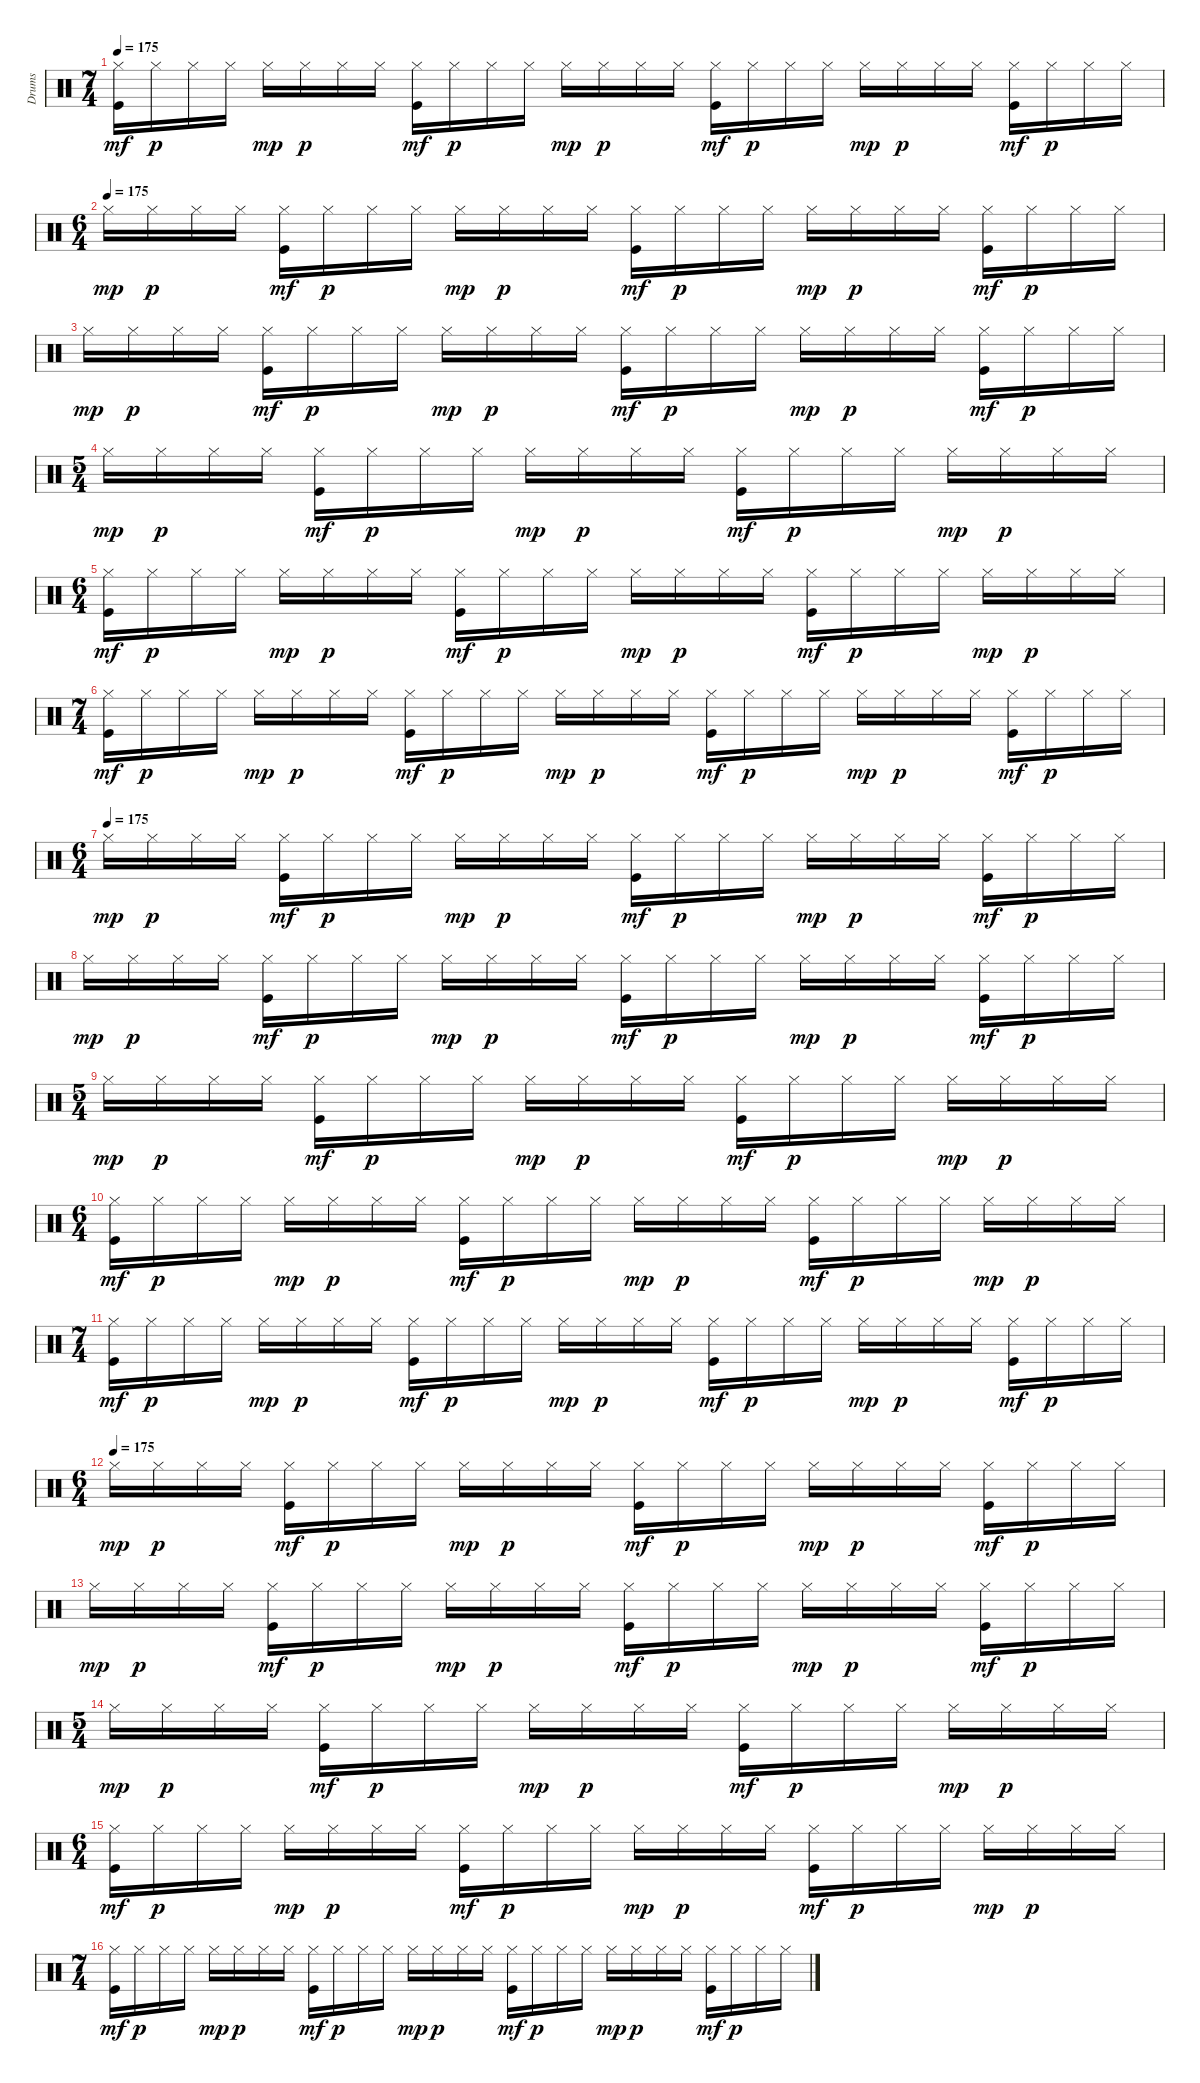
\track ("Drums" "Drums") {instrument percussion}
\staff {score}
\articulation defaults
\ts (7 4)
\tempo 175
\clef neutral
\ks c
("Hi-Hat (closed)" "Kick (hit)").16{dy mf} "Hi-Hat (closed)".16{dy p} "Hi-Hat (closed)".16 "Hi-Hat (closed)".16 "Hi-Hat (closed)".16{dy mp} "Hi-Hat (closed)".16{dy p} "Hi-Hat (closed)".16 "Hi-Hat (closed)".16 ("Hi-Hat (closed)" "Kick (hit)").16{dy mf} "Hi-Hat (closed)".16{dy p} "Hi-Hat (closed)".16 "Hi-Hat (closed)".16 "Hi-Hat (closed)".16{dy mp} "Hi-Hat (closed)".16{dy p} "Hi-Hat (closed)".16 "Hi-Hat (closed)".16 ("Hi-Hat (closed)" "Kick (hit)").16{dy mf} "Hi-Hat (closed)".16{dy p} "Hi-Hat (closed)".16 "Hi-Hat (closed)".16 "Hi-Hat (closed)".16{dy mp} "Hi-Hat (closed)".16{dy p} "Hi-Hat (closed)".16 "Hi-Hat (closed)".16 ("Hi-Hat (closed)" "Kick (hit)").16{dy mf} "Hi-Hat (closed)".16{dy p} "Hi-Hat (closed)".16 "Hi-Hat (closed)".16 |
\ts (6 4)
\tempo (175)
"Hi-Hat (closed)".16{dy mp} "Hi-Hat (closed)".16{dy p} "Hi-Hat (closed)".16 "Hi-Hat (closed)".16 ("Hi-Hat (closed)" "Kick (hit)").16{dy mf} "Hi-Hat (closed)".16{dy p} "Hi-Hat (closed)".16 "Hi-Hat (closed)".16 "Hi-Hat (closed)".16{dy mp} "Hi-Hat (closed)".16{dy p} "Hi-Hat (closed)".16 "Hi-Hat (closed)".16 ("Hi-Hat (closed)" "Kick (hit)").16{dy mf} "Hi-Hat (closed)".16{dy p} "Hi-Hat (closed)".16 "Hi-Hat (closed)".16 "Hi-Hat (closed)".16{dy mp} "Hi-Hat (closed)".16{dy p} "Hi-Hat (closed)".16 "Hi-Hat (closed)".16 ("Hi-Hat (closed)" "Kick (hit)").16{dy mf} "Hi-Hat (closed)".16{dy p} "Hi-Hat (closed)".16 "Hi-Hat (closed)".16 |
"Hi-Hat (closed)".16{dy mp} "Hi-Hat (closed)".16{dy p} "Hi-Hat (closed)".16 "Hi-Hat (closed)".16 ("Hi-Hat (closed)" "Kick (hit)").16{dy mf} "Hi-Hat (closed)".16{dy p} "Hi-Hat (closed)".16 "Hi-Hat (closed)".16 "Hi-Hat (closed)".16{dy mp} "Hi-Hat (closed)".16{dy p} "Hi-Hat (closed)".16 "Hi-Hat (closed)".16 ("Hi-Hat (closed)" "Kick (hit)").16{dy mf} "Hi-Hat (closed)".16{dy p} "Hi-Hat (closed)".16 "Hi-Hat (closed)".16 "Hi-Hat (closed)".16{dy mp} "Hi-Hat (closed)".16{dy p} "Hi-Hat (closed)".16 "Hi-Hat (closed)".16 ("Hi-Hat (closed)" "Kick (hit)").16{dy mf} "Hi-Hat (closed)".16{dy p} "Hi-Hat (closed)".16 "Hi-Hat (closed)".16 |
\ts (5 4)
"Hi-Hat (closed)".16{dy mp} "Hi-Hat (closed)".16{dy p} "Hi-Hat (closed)".16 "Hi-Hat (closed)".16 ("Hi-Hat (closed)" "Kick (hit)").16{dy mf} "Hi-Hat (closed)".16{dy p} "Hi-Hat (closed)".16 "Hi-Hat (closed)".16 "Hi-Hat (closed)".16{dy mp} "Hi-Hat (closed)".16{dy p} "Hi-Hat (closed)".16 "Hi-Hat (closed)".16 ("Hi-Hat (closed)" "Kick (hit)").16{dy mf} "Hi-Hat (closed)".16{dy p} "Hi-Hat (closed)".16 "Hi-Hat (closed)".16 "Hi-Hat (closed)".16{dy mp} "Hi-Hat (closed)".16{dy p} "Hi-Hat (closed)".16 "Hi-Hat (closed)".16 |
\ts (6 4)
("Hi-Hat (closed)" "Kick (hit)").16{dy mf} "Hi-Hat (closed)".16{dy p} "Hi-Hat (closed)".16 "Hi-Hat (closed)".16 "Hi-Hat (closed)".16{dy mp} "Hi-Hat (closed)".16{dy p} "Hi-Hat (closed)".16 "Hi-Hat (closed)".16 ("Hi-Hat (closed)" "Kick (hit)").16{dy mf} "Hi-Hat (closed)".16{dy p} "Hi-Hat (closed)".16 "Hi-Hat (closed)".16 "Hi-Hat (closed)".16{dy mp} "Hi-Hat (closed)".16{dy p} "Hi-Hat (closed)".16 "Hi-Hat (closed)".16 ("Hi-Hat (closed)" "Kick (hit)").16{dy mf} "Hi-Hat (closed)".16{dy p} "Hi-Hat (closed)".16 "Hi-Hat (closed)".16 "Hi-Hat (closed)".16{dy mp} "Hi-Hat (closed)".16{dy p} "Hi-Hat (closed)".16 "Hi-Hat (closed)".16 |
\ts (7 4)
("Hi-Hat (closed)" "Kick (hit)").16{dy mf} "Hi-Hat (closed)".16{dy p} "Hi-Hat (closed)".16 "Hi-Hat (closed)".16 "Hi-Hat (closed)".16{dy mp} "Hi-Hat (closed)".16{dy p} "Hi-Hat (closed)".16 "Hi-Hat (closed)".16 ("Hi-Hat (closed)" "Kick (hit)").16{dy mf} "Hi-Hat (closed)".16{dy p} "Hi-Hat (closed)".16 "Hi-Hat (closed)".16 "Hi-Hat (closed)".16{dy mp} "Hi-Hat (closed)".16{dy p} "Hi-Hat (closed)".16 "Hi-Hat (closed)".16 ("Hi-Hat (closed)" "Kick (hit)").16{dy mf} "Hi-Hat (closed)".16{dy p} "Hi-Hat (closed)".16 "Hi-Hat (closed)".16 "Hi-Hat (closed)".16{dy mp} "Hi-Hat (closed)".16{dy p} "Hi-Hat (closed)".16 "Hi-Hat (closed)".16 ("Hi-Hat (closed)" "Kick (hit)").16{dy mf} "Hi-Hat (closed)".16{dy p} "Hi-Hat (closed)".16 "Hi-Hat (closed)".16 |
\ts (6 4)
\tempo (175)
"Hi-Hat (closed)".16{dy mp} "Hi-Hat (closed)".16{dy p} "Hi-Hat (closed)".16 "Hi-Hat (closed)".16 ("Hi-Hat (closed)" "Kick (hit)").16{dy mf} "Hi-Hat (closed)".16{dy p} "Hi-Hat (closed)".16 "Hi-Hat (closed)".16 "Hi-Hat (closed)".16{dy mp} "Hi-Hat (closed)".16{dy p} "Hi-Hat (closed)".16 "Hi-Hat (closed)".16 ("Hi-Hat (closed)" "Kick (hit)").16{dy mf} "Hi-Hat (closed)".16{dy p} "Hi-Hat (closed)".16 "Hi-Hat (closed)".16 "Hi-Hat (closed)".16{dy mp} "Hi-Hat (closed)".16{dy p} "Hi-Hat (closed)".16 "Hi-Hat (closed)".16 ("Hi-Hat (closed)" "Kick (hit)").16{dy mf} "Hi-Hat (closed)".16{dy p} "Hi-Hat (closed)".16 "Hi-Hat (closed)".16 |
"Hi-Hat (closed)".16{dy mp} "Hi-Hat (closed)".16{dy p} "Hi-Hat (closed)".16 "Hi-Hat (closed)".16 ("Hi-Hat (closed)" "Kick (hit)").16{dy mf} "Hi-Hat (closed)".16{dy p} "Hi-Hat (closed)".16 "Hi-Hat (closed)".16 "Hi-Hat (closed)".16{dy mp} "Hi-Hat (closed)".16{dy p} "Hi-Hat (closed)".16 "Hi-Hat (closed)".16 ("Hi-Hat (closed)" "Kick (hit)").16{dy mf} "Hi-Hat (closed)".16{dy p} "Hi-Hat (closed)".16 "Hi-Hat (closed)".16 "Hi-Hat (closed)".16{dy mp} "Hi-Hat (closed)".16{dy p} "Hi-Hat (closed)".16 "Hi-Hat (closed)".16 ("Hi-Hat (closed)" "Kick (hit)").16{dy mf} "Hi-Hat (closed)".16{dy p} "Hi-Hat (closed)".16 "Hi-Hat (closed)".16 |
\ts (5 4)
"Hi-Hat (closed)".16{dy mp} "Hi-Hat (closed)".16{dy p} "Hi-Hat (closed)".16 "Hi-Hat (closed)".16 ("Hi-Hat (closed)" "Kick (hit)").16{dy mf} "Hi-Hat (closed)".16{dy p} "Hi-Hat (closed)".16 "Hi-Hat (closed)".16 "Hi-Hat (closed)".16{dy mp} "Hi-Hat (closed)".16{dy p} "Hi-Hat (closed)".16 "Hi-Hat (closed)".16 ("Hi-Hat (closed)" "Kick (hit)").16{dy mf} "Hi-Hat (closed)".16{dy p} "Hi-Hat (closed)".16 "Hi-Hat (closed)".16 "Hi-Hat (closed)".16{dy mp} "Hi-Hat (closed)".16{dy p} "Hi-Hat (closed)".16 "Hi-Hat (closed)".16 |
\ts (6 4)
("Hi-Hat (closed)" "Kick (hit)").16{dy mf} "Hi-Hat (closed)".16{dy p} "Hi-Hat (closed)".16 "Hi-Hat (closed)".16 "Hi-Hat (closed)".16{dy mp} "Hi-Hat (closed)".16{dy p} "Hi-Hat (closed)".16 "Hi-Hat (closed)".16 ("Hi-Hat (closed)" "Kick (hit)").16{dy mf} "Hi-Hat (closed)".16{dy p} "Hi-Hat (closed)".16 "Hi-Hat (closed)".16 "Hi-Hat (closed)".16{dy mp} "Hi-Hat (closed)".16{dy p} "Hi-Hat (closed)".16 "Hi-Hat (closed)".16 ("Hi-Hat (closed)" "Kick (hit)").16{dy mf} "Hi-Hat (closed)".16{dy p} "Hi-Hat (closed)".16 "Hi-Hat (closed)".16 "Hi-Hat (closed)".16{dy mp} "Hi-Hat (closed)".16{dy p} "Hi-Hat (closed)".16 "Hi-Hat (closed)".16 |
\ts (7 4)
("Hi-Hat (closed)" "Kick (hit)").16{dy mf} "Hi-Hat (closed)".16{dy p} "Hi-Hat (closed)".16 "Hi-Hat (closed)".16 "Hi-Hat (closed)".16{dy mp} "Hi-Hat (closed)".16{dy p} "Hi-Hat (closed)".16 "Hi-Hat (closed)".16 ("Hi-Hat (closed)" "Kick (hit)").16{dy mf} "Hi-Hat (closed)".16{dy p} "Hi-Hat (closed)".16 "Hi-Hat (closed)".16 "Hi-Hat (closed)".16{dy mp} "Hi-Hat (closed)".16{dy p} "Hi-Hat (closed)".16 "Hi-Hat (closed)".16 ("Hi-Hat (closed)" "Kick (hit)").16{dy mf} "Hi-Hat (closed)".16{dy p} "Hi-Hat (closed)".16 "Hi-Hat (closed)".16 "Hi-Hat (closed)".16{dy mp} "Hi-Hat (closed)".16{dy p} "Hi-Hat (closed)".16 "Hi-Hat (closed)".16 ("Hi-Hat (closed)" "Kick (hit)").16{dy mf} "Hi-Hat (closed)".16{dy p} "Hi-Hat (closed)".16 "Hi-Hat (closed)".16 |
\ts (6 4)
\tempo (175)
"Hi-Hat (closed)".16{dy mp} "Hi-Hat (closed)".16{dy p} "Hi-Hat (closed)".16 "Hi-Hat (closed)".16 ("Hi-Hat (closed)" "Kick (hit)").16{dy mf} "Hi-Hat (closed)".16{dy p} "Hi-Hat (closed)".16 "Hi-Hat (closed)".16 "Hi-Hat (closed)".16{dy mp} "Hi-Hat (closed)".16{dy p} "Hi-Hat (closed)".16 "Hi-Hat (closed)".16 ("Hi-Hat (closed)" "Kick (hit)").16{dy mf} "Hi-Hat (closed)".16{dy p} "Hi-Hat (closed)".16 "Hi-Hat (closed)".16 "Hi-Hat (closed)".16{dy mp} "Hi-Hat (closed)".16{dy p} "Hi-Hat (closed)".16 "Hi-Hat (closed)".16 ("Hi-Hat (closed)" "Kick (hit)").16{dy mf} "Hi-Hat (closed)".16{dy p} "Hi-Hat (closed)".16 "Hi-Hat (closed)".16 |
"Hi-Hat (closed)".16{dy mp} "Hi-Hat (closed)".16{dy p} "Hi-Hat (closed)".16 "Hi-Hat (closed)".16 ("Hi-Hat (closed)" "Kick (hit)").16{dy mf} "Hi-Hat (closed)".16{dy p} "Hi-Hat (closed)".16 "Hi-Hat (closed)".16 "Hi-Hat (closed)".16{dy mp} "Hi-Hat (closed)".16{dy p} "Hi-Hat (closed)".16 "Hi-Hat (closed)".16 ("Hi-Hat (closed)" "Kick (hit)").16{dy mf} "Hi-Hat (closed)".16{dy p} "Hi-Hat (closed)".16 "Hi-Hat (closed)".16 "Hi-Hat (closed)".16{dy mp} "Hi-Hat (closed)".16{dy p} "Hi-Hat (closed)".16 "Hi-Hat (closed)".16 ("Hi-Hat (closed)" "Kick (hit)").16{dy mf} "Hi-Hat (closed)".16{dy p} "Hi-Hat (closed)".16 "Hi-Hat (closed)".16 |
\ts (5 4)
"Hi-Hat (closed)".16{dy mp} "Hi-Hat (closed)".16{dy p} "Hi-Hat (closed)".16 "Hi-Hat (closed)".16 ("Hi-Hat (closed)" "Kick (hit)").16{dy mf} "Hi-Hat (closed)".16{dy p} "Hi-Hat (closed)".16 "Hi-Hat (closed)".16 "Hi-Hat (closed)".16{dy mp} "Hi-Hat (closed)".16{dy p} "Hi-Hat (closed)".16 "Hi-Hat (closed)".16 ("Hi-Hat (closed)" "Kick (hit)").16{dy mf} "Hi-Hat (closed)".16{dy p} "Hi-Hat (closed)".16 "Hi-Hat (closed)".16 "Hi-Hat (closed)".16{dy mp} "Hi-Hat (closed)".16{dy p} "Hi-Hat (closed)".16 "Hi-Hat (closed)".16 |
\ts (6 4)
("Hi-Hat (closed)" "Kick (hit)").16{dy mf} "Hi-Hat (closed)".16{dy p} "Hi-Hat (closed)".16 "Hi-Hat (closed)".16 "Hi-Hat (closed)".16{dy mp} "Hi-Hat (closed)".16{dy p} "Hi-Hat (closed)".16 "Hi-Hat (closed)".16 ("Hi-Hat (closed)" "Kick (hit)").16{dy mf} "Hi-Hat (closed)".16{dy p} "Hi-Hat (closed)".16 "Hi-Hat (closed)".16 "Hi-Hat (closed)".16{dy mp} "Hi-Hat (closed)".16{dy p} "Hi-Hat (closed)".16 "Hi-Hat (closed)".16 ("Hi-Hat (closed)" "Kick (hit)").16{dy mf} "Hi-Hat (closed)".16{dy p} "Hi-Hat (closed)".16 "Hi-Hat (closed)".16 "Hi-Hat (closed)".16{dy mp} "Hi-Hat (closed)".16{dy p} "Hi-Hat (closed)".16 "Hi-Hat (closed)".16 |
\ts (7 4)
("Hi-Hat (closed)" "Kick (hit)").16{dy mf} "Hi-Hat (closed)".16{dy p} "Hi-Hat (closed)".16 "Hi-Hat (closed)".16 "Hi-Hat (closed)".16{dy mp} "Hi-Hat (closed)".16{dy p} "Hi-Hat (closed)".16 "Hi-Hat (closed)".16 ("Hi-Hat (closed)" "Kick (hit)").16{dy mf} "Hi-Hat (closed)".16{dy p} "Hi-Hat (closed)".16 "Hi-Hat (closed)".16 "Hi-Hat (closed)".16{dy mp} "Hi-Hat (closed)".16{dy p} "Hi-Hat (closed)".16 "Hi-Hat (closed)".16 ("Hi-Hat (closed)" "Kick (hit)").16{dy mf} "Hi-Hat (closed)".16{dy p} "Hi-Hat (closed)".16 "Hi-Hat (closed)".16 "Hi-Hat (closed)".16{dy mp} "Hi-Hat (closed)".16{dy p} "Hi-Hat (closed)".16 "Hi-Hat (closed)".16 ("Hi-Hat (closed)" "Kick (hit)").16{dy mf} "Hi-Hat (closed)".16{dy p} "Hi-Hat (closed)".16 "Hi-Hat (closed)".16
